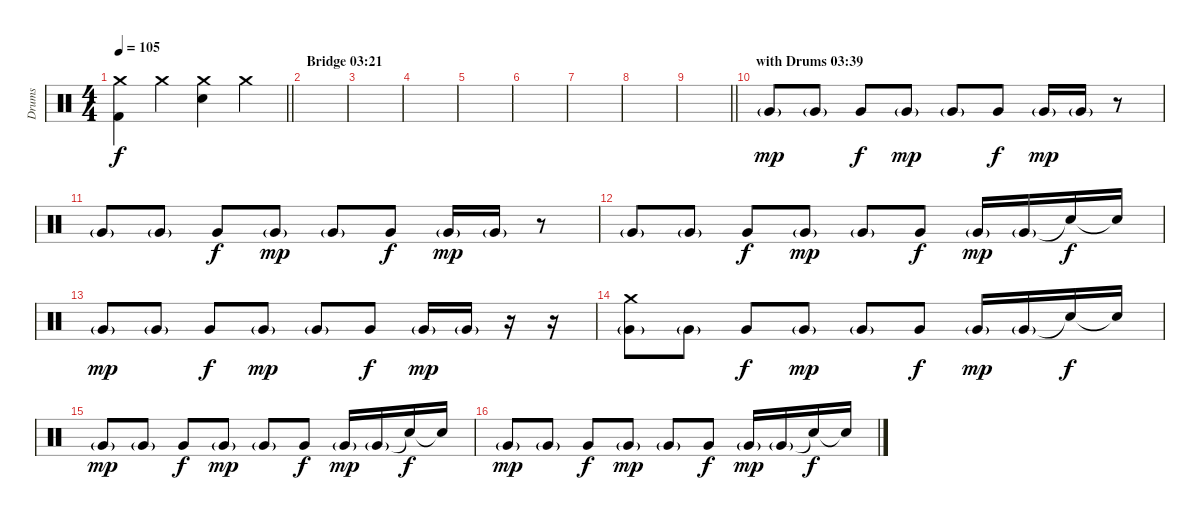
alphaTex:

\track ("Drums" "Drums") {instrument percussion}
\staff {score}
\articulation defaults
\ts (4 4)
\tempo 105
\clef neutral
\barLineRight lightlight
\ks c
("Crash medium (hit)" "Kick (hit) 2").4{dy f} "Crash medium (hit)".4 ("Crash medium (hit)" "Electric Snare (hit)").4 "Crash medium (hit)".4 |
\section ("" "Bridge 03:21")
|
|
|
|
|
|
|
\barLineRight lightlight
|
\section ("" "with Drums 03:39")
"Very Low Tom (hit)"{g}.8{dy mp} "Very Low Tom (hit)"{g}.8 "Very Low Tom (hit)".8{dy f} "Very Low Tom (hit)"{g}.8{dy mp} "Very Low Tom (hit)"{g}.8 "Very Low Tom (hit)".8{dy f} "Very Low Tom (hit)"{g}.16{dy mp} "Very Low Tom (hit)"{g}.16 r.8 |
"Very Low Tom (hit)"{g}.8 "Very Low Tom (hit)"{g}.8 "Very Low Tom (hit)".8{dy f} "Very Low Tom (hit)"{g}.8{dy mp} "Very Low Tom (hit)"{g}.8 "Very Low Tom (hit)".8{dy f} "Very Low Tom (hit)"{g}.16{dy mp} "Very Low Tom (hit)"{g}.16 r.8 |
"Very Low Tom (hit)"{g}.8 "Very Low Tom (hit)"{g}.8 "Very Low Tom (hit)".8{dy f} "Very Low Tom (hit)"{g}.8{dy mp} "Very Low Tom (hit)"{g}.8 "Very Low Tom (hit)".8{dy f} "Very Low Tom (hit)"{g}.16{dy mp} "Very Low Tom (hit)"{g}.16 "Snare (hit)"{t}.16{dy f} "Snare (hit)"{t}.16 |
"Very Low Tom (hit)"{g}.8{dy mp} "Very Low Tom (hit)"{g}.8 "Very Low Tom (hit)".8{dy f} "Very Low Tom (hit)"{g}.8{dy mp} "Very Low Tom (hit)"{g}.8 "Very Low Tom (hit)".8{dy f} "Very Low Tom (hit)"{g}.16{dy mp} "Very Low Tom (hit)"{g}.16 r.16 r.16 |
("Crash medium (hit)" "Very Low Tom (hit)"{g}).8 "Very Low Tom (hit)"{g}.8 "Very Low Tom (hit)".8{dy f} "Very Low Tom (hit)"{g}.8{dy mp} "Very Low Tom (hit)"{g}.8 "Very Low Tom (hit)".8{dy f} "Very Low Tom (hit)"{g}.16{dy mp} "Very Low Tom (hit)"{g}.16 "Snare (hit)"{t}.16{dy f} "Snare (hit)"{t}.16 |
"Very Low Tom (hit)"{g}.8{dy mp} "Very Low Tom (hit)"{g}.8 "Very Low Tom (hit)".8{dy f} "Very Low Tom (hit)"{g}.8{dy mp} "Very Low Tom (hit)"{g}.8 "Very Low Tom (hit)".8{dy f} "Very Low Tom (hit)"{g}.16{dy mp} "Very Low Tom (hit)"{g}.16 "Snare (hit)"{t}.16{dy f} "Snare (hit)"{t}.16 |
"Very Low Tom (hit)"{g}.8{dy mp} "Very Low Tom (hit)"{g}.8 "Very Low Tom (hit)".8{dy f} "Very Low Tom (hit)"{g}.8{dy mp} "Very Low Tom (hit)"{g}.8 "Very Low Tom (hit)".8{dy f} "Very Low Tom (hit)"{g}.16{dy mp} "Very Low Tom (hit)"{g}.16 "Snare (hit)"{t}.16{dy f} "Snare (hit)"{t}.16
